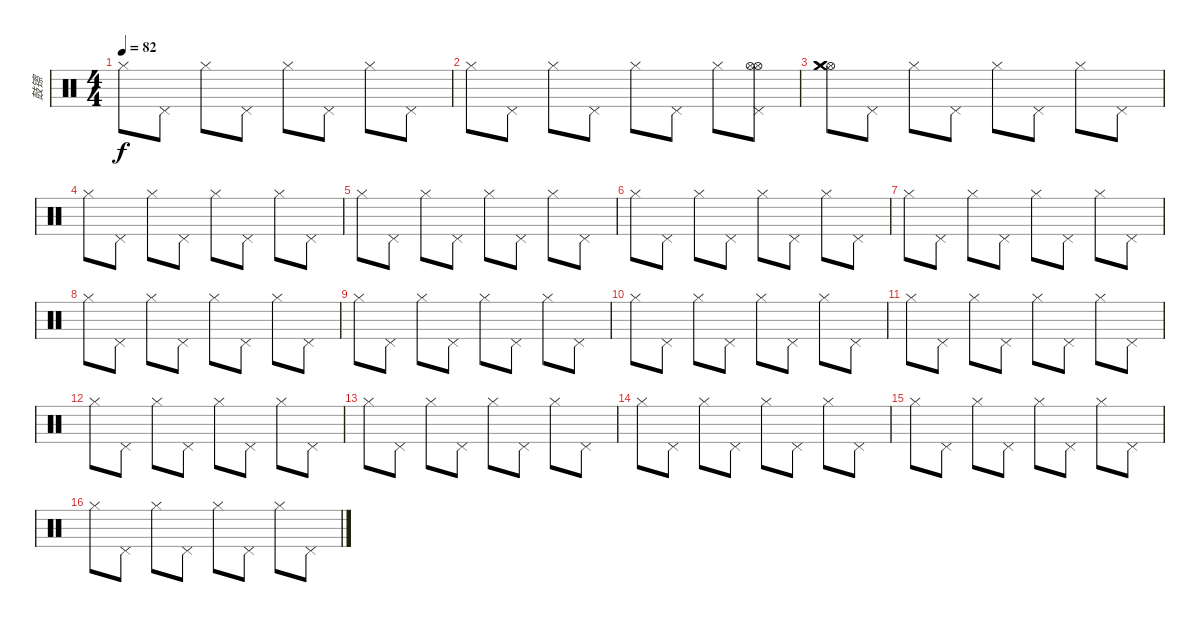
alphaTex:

\track ("鼓镲" "鼓镲") {instrument percussion}
\staff {score}
\articulation defaults
\ts (4 4)
\tempo 82
\clef neutral
\ks c "Hi-Hat (closed)".8{dy f} "Pedal Hi-Hat (hit)".8 "Hi-Hat (closed)".8 "Pedal Hi-Hat (hit)".8 "Hi-Hat (closed)".8 "Pedal Hi-Hat (hit)".8 "Hi-Hat (closed)".8 "Pedal Hi-Hat (hit)".8
|
"Hi-Hat (closed)".8 "Pedal Hi-Hat (hit)".8 "Hi-Hat (closed)".8 "Pedal Hi-Hat (hit)".8 "Hi-Hat (closed)".8 "Pedal Hi-Hat (hit)".8 "Hi-Hat (closed)".8 ("Pedal Hi-Hat (hit)" "Hi-Hat (open)" "Hi-Hat (open)").8 |
("Hi-Hat (open)" "Crash medium (hit)" "Crash medium (hit)").8 "Pedal Hi-Hat (hit)".8 "Hi-Hat (closed)".8 "Pedal Hi-Hat (hit)".8 "Hi-Hat (closed)".8 "Pedal Hi-Hat (hit)".8 "Hi-Hat (closed)".8 "Pedal Hi-Hat (hit)".8 |
"Hi-Hat (closed)".8 "Pedal Hi-Hat (hit)".8 "Hi-Hat (closed)".8 "Pedal Hi-Hat (hit)".8 "Hi-Hat (closed)".8 "Pedal Hi-Hat (hit)".8 "Hi-Hat (closed)".8 "Pedal Hi-Hat (hit)".8 |
"Hi-Hat (closed)".8 "Pedal Hi-Hat (hit)".8 "Hi-Hat (closed)".8 "Pedal Hi-Hat (hit)".8 "Hi-Hat (closed)".8 "Pedal Hi-Hat (hit)".8 "Hi-Hat (closed)".8 "Pedal Hi-Hat (hit)".8 |
"Hi-Hat (closed)".8 "Pedal Hi-Hat (hit)".8 "Hi-Hat (closed)".8 "Pedal Hi-Hat (hit)".8 "Hi-Hat (closed)".8 "Pedal Hi-Hat (hit)".8 "Hi-Hat (closed)".8 "Pedal Hi-Hat (hit)".8 |
"Hi-Hat (closed)".8 "Pedal Hi-Hat (hit)".8 "Hi-Hat (closed)".8 "Pedal Hi-Hat (hit)".8 "Hi-Hat (closed)".8 "Pedal Hi-Hat (hit)".8 "Hi-Hat (closed)".8 "Pedal Hi-Hat (hit)".8 |
"Hi-Hat (closed)".8 "Pedal Hi-Hat (hit)".8 "Hi-Hat (closed)".8 "Pedal Hi-Hat (hit)".8 "Hi-Hat (closed)".8 "Pedal Hi-Hat (hit)".8 "Hi-Hat (closed)".8 "Pedal Hi-Hat (hit)".8 |
"Hi-Hat (closed)".8 "Pedal Hi-Hat (hit)".8 "Hi-Hat (closed)".8 "Pedal Hi-Hat (hit)".8 "Hi-Hat (closed)".8 "Pedal Hi-Hat (hit)".8 "Hi-Hat (closed)".8 "Pedal Hi-Hat (hit)".8 |
"Hi-Hat (closed)".8 "Pedal Hi-Hat (hit)".8 "Hi-Hat (closed)".8 "Pedal Hi-Hat (hit)".8 "Hi-Hat (closed)".8 "Pedal Hi-Hat (hit)".8 "Hi-Hat (closed)".8 "Pedal Hi-Hat (hit)".8 |
"Hi-Hat (closed)".8 "Pedal Hi-Hat (hit)".8 "Hi-Hat (closed)".8 "Pedal Hi-Hat (hit)".8 "Hi-Hat (closed)".8 "Pedal Hi-Hat (hit)".8 "Hi-Hat (closed)".8 "Pedal Hi-Hat (hit)".8 |
"Hi-Hat (closed)".8 "Pedal Hi-Hat (hit)".8 "Hi-Hat (closed)".8 "Pedal Hi-Hat (hit)".8 "Hi-Hat (closed)".8 "Pedal Hi-Hat (hit)".8 "Hi-Hat (closed)".8 "Pedal Hi-Hat (hit)".8 |
"Hi-Hat (closed)".8 "Pedal Hi-Hat (hit)".8 "Hi-Hat (closed)".8 "Pedal Hi-Hat (hit)".8 "Hi-Hat (closed)".8 "Pedal Hi-Hat (hit)".8 "Hi-Hat (closed)".8 "Pedal Hi-Hat (hit)".8 |
"Hi-Hat (closed)".8 "Pedal Hi-Hat (hit)".8 "Hi-Hat (closed)".8 "Pedal Hi-Hat (hit)".8 "Hi-Hat (closed)".8 "Pedal Hi-Hat (hit)".8 "Hi-Hat (closed)".8 "Pedal Hi-Hat (hit)".8 |
"Hi-Hat (closed)".8 "Pedal Hi-Hat (hit)".8 "Hi-Hat (closed)".8 "Pedal Hi-Hat (hit)".8 "Hi-Hat (closed)".8 "Pedal Hi-Hat (hit)".8 "Hi-Hat (closed)".8 "Pedal Hi-Hat (hit)".8 |
"Hi-Hat (closed)".8 "Pedal Hi-Hat (hit)".8 "Hi-Hat (closed)".8 "Pedal Hi-Hat (hit)".8 "Hi-Hat (closed)".8 "Pedal Hi-Hat (hit)".8 "Hi-Hat (closed)".8 "Pedal Hi-Hat (hit)".8
